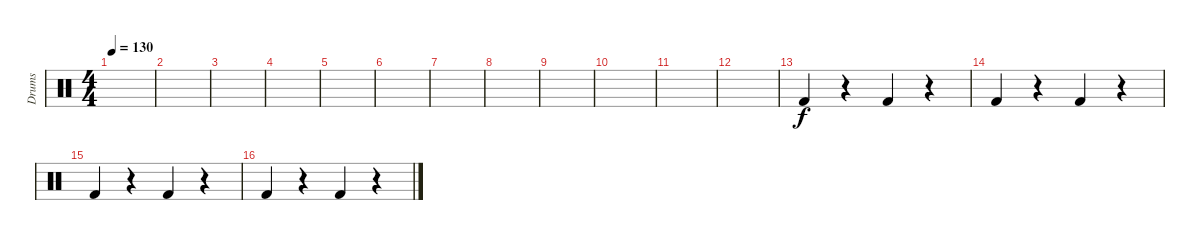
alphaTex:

\track ("Drums" "Drums") {instrument percussion}
\staff {score}
\articulation defaults
\ts (4 4)
\tempo 130
\clef neutral
\ks c
|
|
|
|
|
|
|
|
|
|
|
|
"Kick (hit) 2".4 r.4 "Kick (hit) 2".4 r.4 |
"Kick (hit) 2".4 r.4 "Kick (hit) 2".4 r.4 |
"Kick (hit) 2".4 r.4 "Kick (hit) 2".4 r.4 |
"Kick (hit) 2".4 r.4 "Kick (hit) 2".4 r.4
